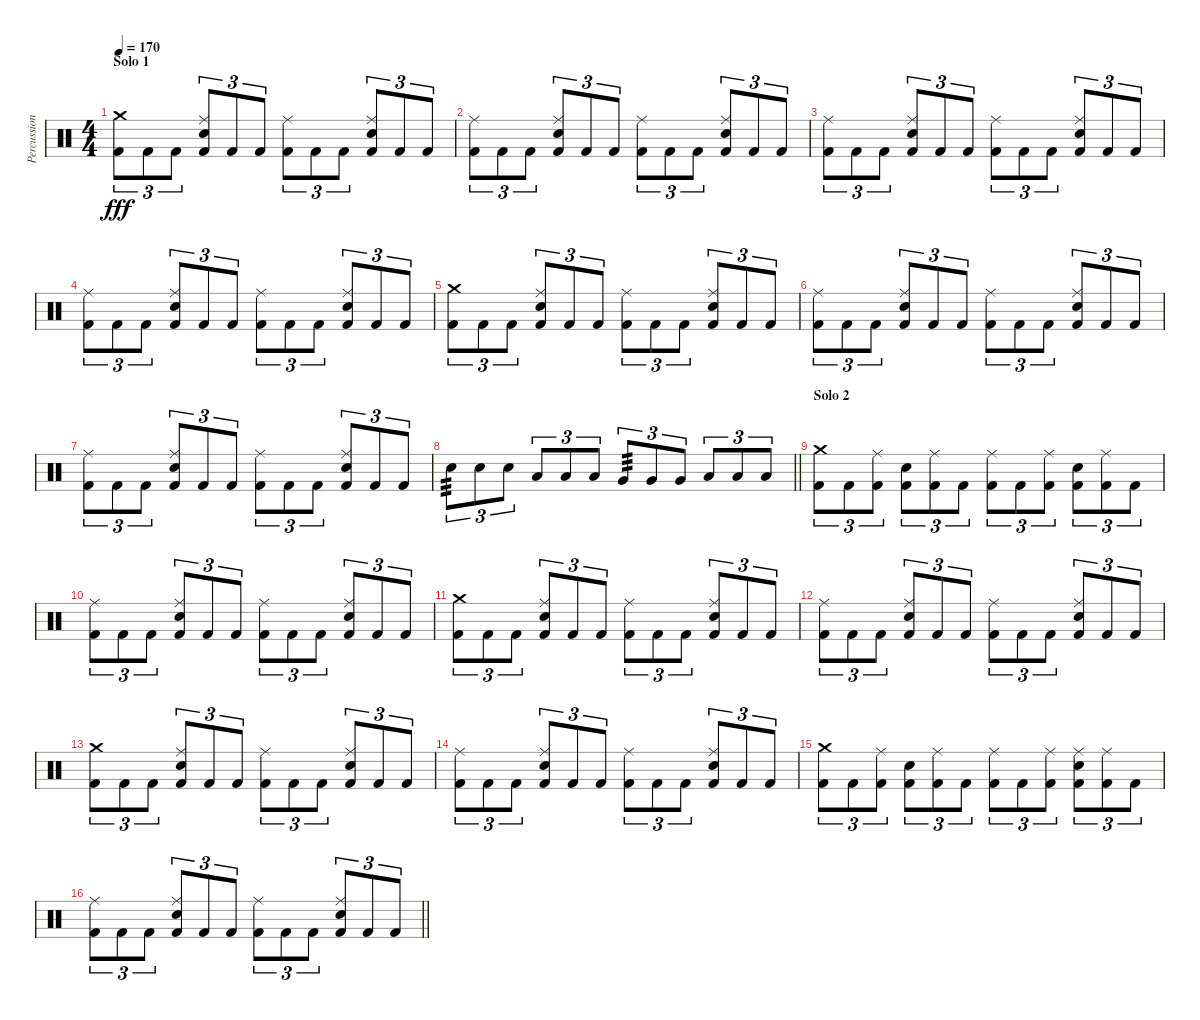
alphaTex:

\track ("Percussion" "Percussion") {instrument percussion}
\staff {score}
\articulation defaults
\ts (4 4)
\section ("" "Solo 1")
\tempo 170
\clef neutral
\ks c
("Crash medium (hit)" "Kick (hit) 2").8{tu (3 2) dy fff} "Kick (hit) 2".8{tu (3 2)} "Kick (hit) 2".8{tu (3 2)} ("Ride (middle)" "Snare (hit) 2" "Kick (hit) 2").8{tu (3 2)} "Kick (hit) 2".8{tu (3 2)} "Kick (hit) 2".8{tu (3 2)} ("Ride (middle)" "Kick (hit) 2").8{tu (3 2)} "Kick (hit) 2".8{tu (3 2)} "Kick (hit) 2".8{tu (3 2)} ("Ride (middle)" "Snare (hit) 2" "Kick (hit) 2").8{tu (3 2)} "Kick (hit) 2".8{tu (3 2)} "Kick (hit) 2".8{tu (3 2)} |
("Ride (middle)" "Kick (hit) 2").8{tu (3 2)} "Kick (hit) 2".8{tu (3 2)} "Kick (hit) 2".8{tu (3 2)} ("Ride (middle)" "Snare (hit) 2" "Kick (hit) 2").8{tu (3 2)} "Kick (hit) 2".8{tu (3 2)} "Kick (hit) 2".8{tu (3 2)} ("Ride (middle)" "Kick (hit) 2").8{tu (3 2)} "Kick (hit) 2".8{tu (3 2)} "Kick (hit) 2".8{tu (3 2)} ("Ride (middle)" "Snare (hit) 2" "Kick (hit) 2").8{tu (3 2)} "Kick (hit) 2".8{tu (3 2)} "Kick (hit) 2".8{tu (3 2)} |
("Ride (middle)" "Kick (hit) 2").8{tu (3 2)} "Kick (hit) 2".8{tu (3 2)} "Kick (hit) 2".8{tu (3 2)} ("Ride (middle)" "Snare (hit) 2" "Kick (hit) 2").8{tu (3 2)} "Kick (hit) 2".8{tu (3 2)} "Kick (hit) 2".8{tu (3 2)} ("Ride (middle)" "Kick (hit) 2").8{tu (3 2)} "Kick (hit) 2".8{tu (3 2)} "Kick (hit) 2".8{tu (3 2)} ("Ride (middle)" "Snare (hit) 2" "Kick (hit) 2").8{tu (3 2)} "Kick (hit) 2".8{tu (3 2)} "Kick (hit) 2".8{tu (3 2)} |
("Ride (middle)" "Kick (hit) 2").8{tu (3 2)} "Kick (hit) 2".8{tu (3 2)} "Kick (hit) 2".8{tu (3 2)} ("Ride (middle)" "Snare (hit) 2" "Kick (hit) 2").8{tu (3 2)} "Kick (hit) 2".8{tu (3 2)} "Kick (hit) 2".8{tu (3 2)} ("Ride (middle)" "Kick (hit) 2").8{tu (3 2)} "Kick (hit) 2".8{tu (3 2)} "Kick (hit) 2".8{tu (3 2)} ("Ride (middle)" "Snare (hit) 2" "Kick (hit) 2").8{tu (3 2)} "Kick (hit) 2".8{tu (3 2)} "Kick (hit) 2".8{tu (3 2)} |
("Crash medium (hit)" "Kick (hit) 2").8{tu (3 2)} "Kick (hit) 2".8{tu (3 2)} "Kick (hit) 2".8{tu (3 2)} ("Ride (middle)" "Snare (hit) 2" "Kick (hit) 2").8{tu (3 2)} "Kick (hit) 2".8{tu (3 2)} "Kick (hit) 2".8{tu (3 2)} ("Ride (middle)" "Kick (hit) 2").8{tu (3 2)} "Kick (hit) 2".8{tu (3 2)} "Kick (hit) 2".8{tu (3 2)} ("Ride (middle)" "Snare (hit) 2" "Kick (hit) 2").8{tu (3 2)} "Kick (hit) 2".8{tu (3 2)} "Kick (hit) 2".8{tu (3 2)} |
("Ride (middle)" "Kick (hit) 2").8{tu (3 2)} "Kick (hit) 2".8{tu (3 2)} "Kick (hit) 2".8{tu (3 2)} ("Ride (middle)" "Snare (hit) 2" "Kick (hit) 2").8{tu (3 2)} "Kick (hit) 2".8{tu (3 2)} "Kick (hit) 2".8{tu (3 2)} ("Ride (middle)" "Kick (hit) 2").8{tu (3 2)} "Kick (hit) 2".8{tu (3 2)} "Kick (hit) 2".8{tu (3 2)} ("Ride (middle)" "Snare (hit) 2" "Kick (hit) 2").8{tu (3 2)} "Kick (hit) 2".8{tu (3 2)} "Kick (hit) 2".8{tu (3 2)} |
("Ride (middle)" "Kick (hit) 2").8{tu (3 2)} "Kick (hit) 2".8{tu (3 2)} "Kick (hit) 2".8{tu (3 2)} ("Ride (middle)" "Snare (hit) 2" "Kick (hit) 2").8{tu (3 2)} "Kick (hit) 2".8{tu (3 2)} "Kick (hit) 2".8{tu (3 2)} ("Ride (middle)" "Kick (hit) 2").8{tu (3 2)} "Kick (hit) 2".8{tu (3 2)} "Kick (hit) 2".8{tu (3 2)} ("Ride (middle)" "Snare (hit) 2" "Kick (hit) 2").8{tu (3 2)} "Kick (hit) 2".8{tu (3 2)} "Kick (hit) 2".8{tu (3 2)} |
\barLineRight lightlight "Electric Snare (hit)".8{tu (3 2) tp 3} "Electric Snare (hit)".8{tu (3 2)} "Electric Snare (hit)".8{tu (3 2)} "Low Tom (hit)".8{tu (3 2)} "Low Tom (hit)".8{tu (3 2)} "Low Tom (hit)".8{tu (3 2)} "Very Low Tom (hit)".8{tu (3 2) tp 3} "Very Low Tom (hit)".8{tu (3 2)} "Very Low Tom (hit)".8{tu (3 2)} "Low Floor Tom (hit)".8{tu (3 2)} "Low Floor Tom (hit)".8{tu (3 2)} "Low Floor Tom (hit)".8{tu (3 2)}
|
\section ("" "Solo 2")
("Crash medium (hit)" "Kick (hit) 2").8{tu (3 2)} "Kick (hit) 2".8{tu (3 2)} ("Ride (middle)" "Kick (hit) 2").8{tu (3 2)} ("Snare (hit) 2" "Kick (hit) 2").8{tu (3 2)} ("Ride (middle)" "Kick (hit) 2").8{tu (3 2)} "Kick (hit) 2".8{tu (3 2)} ("Ride (middle)" "Kick (hit) 2").8{tu (3 2)} "Kick (hit) 2".8{tu (3 2)} ("Ride (middle)" "Kick (hit) 2").8{tu (3 2)} ("Snare (hit) 2" "Kick (hit) 2").8{tu (3 2)} ("Ride (middle)" "Kick (hit) 2").8{tu (3 2)} "Kick (hit) 2".8{tu (3 2)} |
("Ride (middle)" "Kick (hit) 2").8{tu (3 2)} "Kick (hit) 2".8{tu (3 2)} "Kick (hit) 2".8{tu (3 2)} ("Ride (middle)" "Snare (hit) 2" "Kick (hit) 2").8{tu (3 2)} "Kick (hit) 2".8{tu (3 2)} "Kick (hit) 2".8{tu (3 2)} ("Ride (middle)" "Kick (hit) 2").8{tu (3 2)} "Kick (hit) 2".8{tu (3 2)} "Kick (hit) 2".8{tu (3 2)} ("Ride (middle)" "Snare (hit) 2" "Kick (hit) 2").8{tu (3 2)} "Kick (hit) 2".8{tu (3 2)} "Kick (hit) 2".8{tu (3 2)} |
("Crash medium (hit)" "Kick (hit) 2").8{tu (3 2)} "Kick (hit) 2".8{tu (3 2)} "Kick (hit) 2".8{tu (3 2)} ("Ride (middle)" "Snare (hit) 2" "Kick (hit) 2").8{tu (3 2)} "Kick (hit) 2".8{tu (3 2)} "Kick (hit) 2".8{tu (3 2)} ("Ride (middle)" "Kick (hit) 2").8{tu (3 2)} "Kick (hit) 2".8{tu (3 2)} "Kick (hit) 2".8{tu (3 2)} ("Ride (middle)" "Snare (hit) 2" "Kick (hit) 2").8{tu (3 2)} "Kick (hit) 2".8{tu (3 2)} "Kick (hit) 2".8{tu (3 2)} |
("Ride (middle)" "Kick (hit) 2").8{tu (3 2)} "Kick (hit) 2".8{tu (3 2)} "Kick (hit) 2".8{tu (3 2)} ("Ride (middle)" "Snare (hit) 2" "Kick (hit) 2").8{tu (3 2)} "Kick (hit) 2".8{tu (3 2)} "Kick (hit) 2".8{tu (3 2)} ("Ride (middle)" "Kick (hit) 2").8{tu (3 2)} "Kick (hit) 2".8{tu (3 2)} "Kick (hit) 2".8{tu (3 2)} ("Ride (middle)" "Snare (hit) 2" "Kick (hit) 2").8{tu (3 2)} "Kick (hit) 2".8{tu (3 2)} "Kick (hit) 2".8{tu (3 2)} |
("Crash medium (hit)" "Kick (hit) 2").8{tu (3 2)} "Kick (hit) 2".8{tu (3 2)} "Kick (hit) 2".8{tu (3 2)} ("Ride (middle)" "Snare (hit) 2" "Kick (hit) 2").8{tu (3 2)} "Kick (hit) 2".8{tu (3 2)} "Kick (hit) 2".8{tu (3 2)} ("Ride (middle)" "Kick (hit) 2").8{tu (3 2)} "Kick (hit) 2".8{tu (3 2)} "Kick (hit) 2".8{tu (3 2)} ("Ride (middle)" "Snare (hit) 2" "Kick (hit) 2").8{tu (3 2)} "Kick (hit) 2".8{tu (3 2)} "Kick (hit) 2".8{tu (3 2)} |
("Ride (middle)" "Kick (hit) 2").8{tu (3 2)} "Kick (hit) 2".8{tu (3 2)} "Kick (hit) 2".8{tu (3 2)} ("Ride (middle)" "Snare (hit) 2" "Kick (hit) 2").8{tu (3 2)} "Kick (hit) 2".8{tu (3 2)} "Kick (hit) 2".8{tu (3 2)} ("Ride (middle)" "Kick (hit) 2").8{tu (3 2)} "Kick (hit) 2".8{tu (3 2)} "Kick (hit) 2".8{tu (3 2)} ("Ride (middle)" "Snare (hit) 2" "Kick (hit) 2").8{tu (3 2)} "Kick (hit) 2".8{tu (3 2)} "Kick (hit) 2".8{tu (3 2)} |
("Crash medium (hit)" "Kick (hit) 2").8{tu (3 2)} "Kick (hit) 2".8{tu (3 2)} ("Ride (middle)" "Kick (hit) 2").8{tu (3 2)} ("Snare (hit) 2" "Kick (hit) 2").8{tu (3 2)} ("Ride (middle)" "Kick (hit) 2").8{tu (3 2)} "Kick (hit) 2".8{tu (3 2)} ("Ride (middle)" "Kick (hit) 2").8{tu (3 2)} "Kick (hit) 2".8{tu (3 2)} ("Ride (middle)" "Kick (hit) 2").8{tu (3 2)} ("Ride (middle)" "Snare (hit) 2" "Kick (hit) 2").8{tu (3 2)} ("Ride (middle)" "Kick (hit) 2").8{tu (3 2)} "Kick (hit) 2".8{tu (3 2)} |
\barLineRight lightlight
("Ride (middle)" "Kick (hit) 2").8{tu (3 2)} "Kick (hit) 2".8{tu (3 2)} "Kick (hit) 2".8{tu (3 2)} ("Ride (middle)" "Snare (hit) 2" "Kick (hit) 2").8{tu (3 2)} "Kick (hit) 2".8{tu (3 2)} "Kick (hit) 2".8{tu (3 2)} ("Ride (middle)" "Kick (hit) 2").8{tu (3 2)} "Kick (hit) 2".8{tu (3 2)} "Kick (hit) 2".8{tu (3 2)} ("Ride (middle)" "Snare (hit) 2" "Kick (hit) 2").8{tu (3 2)} "Kick (hit) 2".8{tu (3 2)} "Kick (hit) 2".8{tu (3 2)}
